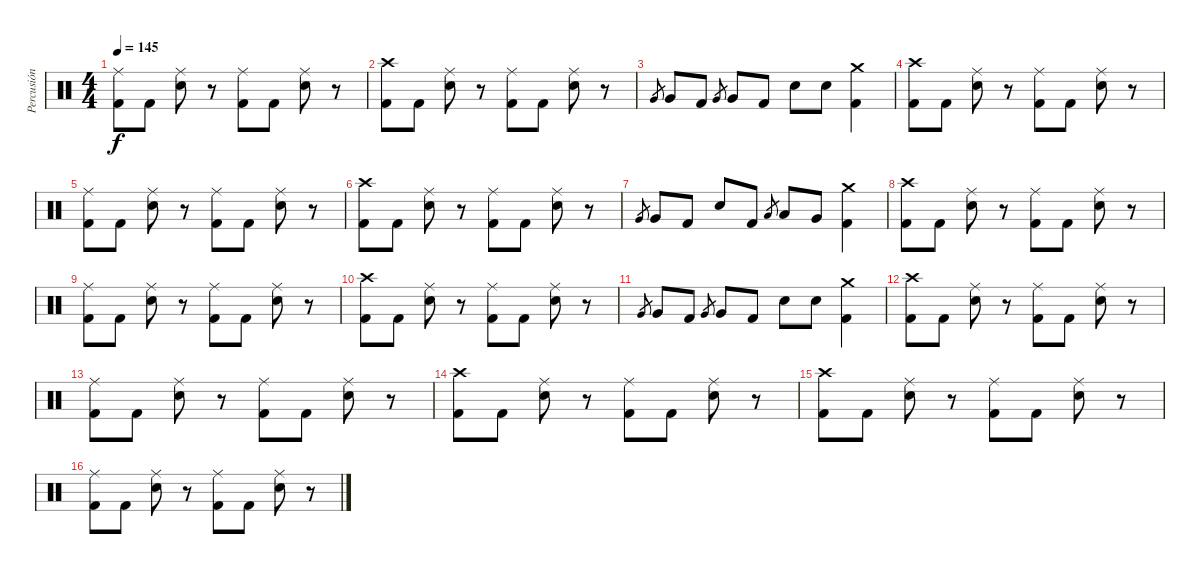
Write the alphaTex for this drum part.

\track ("Percusión" "Percusión") {instrument percussion}
\staff {score}
\articulation defaults
\ts (4 4)
\tempo 145
\clef neutral
\ks c
("Ride (middle)" "Kick (hit) 2").8{dy f} "Kick (hit) 2".8 ("Ride (middle)" "Electric Snare (hit)").8 r.8 ("Ride (middle)" "Kick (hit) 2").8 "Kick (hit) 2".8 ("Ride (middle)" "Electric Snare (hit)").8 r.8 |
("Crash high (hit)" "Kick (hit) 2").8 "Kick (hit) 2".8 ("Ride (middle)" "Electric Snare (hit)").8 r.8 ("Ride (middle)" "Kick (hit) 2").8 "Kick (hit) 2".8 ("Ride (middle)" "Electric Snare (hit)").8 r.8 |
"Very Low Tom (hit)".8{gr} "Very Low Tom (hit)".8 "Kick (hit) 2".8 "Very Low Tom (hit)".8{gr} "Very Low Tom (hit)".8 "Kick (hit) 2".8 "Electric Snare (hit)".8 "Electric Snare (hit)".8 ("Crash medium (hit)" "Kick (hit) 2").4 |
("Crash high (hit)" "Kick (hit) 2").8 "Kick (hit) 2".8 ("Ride (middle)" "Electric Snare (hit)").8 r.8 ("Ride (middle)" "Kick (hit) 2").8 "Kick (hit) 2".8 ("Ride (middle)" "Electric Snare (hit)").8 r.8 |
("Ride (middle)" "Kick (hit) 2").8 "Kick (hit) 2".8 ("Ride (middle)" "Electric Snare (hit)").8 r.8 ("Ride (middle)" "Kick (hit) 2").8 "Kick (hit) 2".8 ("Ride (middle)" "Electric Snare (hit)").8 r.8 |
("Crash high (hit)" "Kick (hit) 2").8 "Kick (hit) 2".8 ("Ride (middle)" "Electric Snare (hit)").8 r.8 ("Ride (middle)" "Kick (hit) 2").8 "Kick (hit) 2".8 ("Ride (middle)" "Electric Snare (hit)").8 r.8 |
"Very Low Tom (hit)".8{gr} "Very Low Tom (hit)".8 "Kick (hit) 2".8 "Electric Snare (hit)".8 "Kick (hit) 2".8 "Low Tom (hit)".8{gr} "Low Tom (hit)".8 "Very Low Tom (hit)".8 ("Crash medium (hit)" "Kick (hit) 2").4 |
("Crash high (hit)" "Kick (hit) 2").8 "Kick (hit) 2".8 ("Ride (middle)" "Electric Snare (hit)").8 r.8 ("Ride (middle)" "Kick (hit) 2").8 "Kick (hit) 2".8 ("Ride (middle)" "Electric Snare (hit)").8 r.8 |
("Ride (middle)" "Kick (hit) 2").8 "Kick (hit) 2".8 ("Ride (middle)" "Electric Snare (hit)").8 r.8 ("Ride (middle)" "Kick (hit) 2").8 "Kick (hit) 2".8 ("Ride (middle)" "Electric Snare (hit)").8 r.8 |
("Crash high (hit)" "Kick (hit) 2").8 "Kick (hit) 2".8 ("Ride (middle)" "Electric Snare (hit)").8 r.8 ("Ride (middle)" "Kick (hit) 2").8 "Kick (hit) 2".8 ("Ride (middle)" "Electric Snare (hit)").8 r.8 |
"Very Low Tom (hit)".8{gr} "Very Low Tom (hit)".8 "Kick (hit) 2".8 "Very Low Tom (hit)".8{gr} "Very Low Tom (hit)".8 "Kick (hit) 2".8 "Electric Snare (hit)".8 "Electric Snare (hit)".8 ("Crash medium (hit)" "Kick (hit) 2").4 |
("Crash high (hit)" "Kick (hit) 2").8 "Kick (hit) 2".8 ("Ride (middle)" "Electric Snare (hit)").8 r.8 ("Ride (middle)" "Kick (hit) 2").8 "Kick (hit) 2".8 ("Ride (middle)" "Electric Snare (hit)").8 r.8 |
("Ride (middle)" "Kick (hit) 2").8 "Kick (hit) 2".8 ("Ride (middle)" "Electric Snare (hit)").8 r.8 ("Ride (middle)" "Kick (hit) 2").8 "Kick (hit) 2".8 ("Ride (middle)" "Electric Snare (hit)").8 r.8 |
("Crash high (hit)" "Kick (hit) 2").8 "Kick (hit) 2".8 ("Ride (middle)" "Electric Snare (hit)").8 r.8 ("Ride (middle)" "Kick (hit) 2").8 "Kick (hit) 2".8 ("Ride (middle)" "Electric Snare (hit)").8 r.8 |
("Crash high (hit)" "Kick (hit) 2").8 "Kick (hit) 2".8 ("Ride (middle)" "Electric Snare (hit)").8 r.8 ("Ride (middle)" "Kick (hit) 2").8 "Kick (hit) 2".8 ("Ride (middle)" "Electric Snare (hit)").8 r.8 |
("Ride (middle)" "Kick (hit) 2").8 "Kick (hit) 2".8 ("Ride (middle)" "Electric Snare (hit)").8 r.8 ("Ride (middle)" "Kick (hit) 2").8 "Kick (hit) 2".8 ("Ride (middle)" "Electric Snare (hit)").8 r.8
